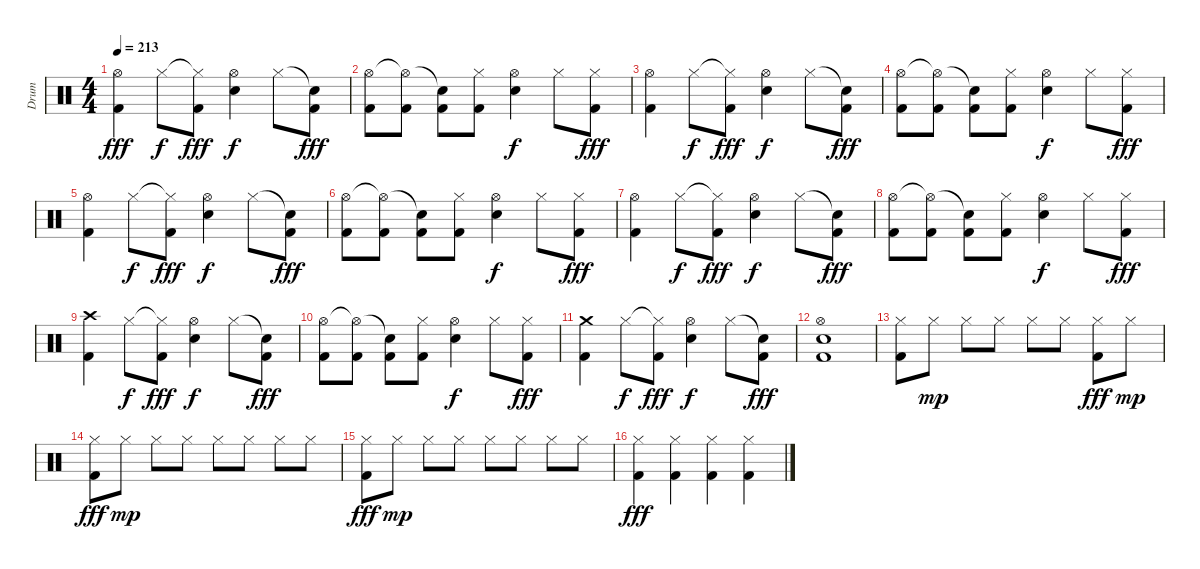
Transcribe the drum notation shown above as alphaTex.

\track ("Drum" "Drum") {instrument percussion}
\staff {score}
\articulation defaults
\ts (4 4)
\tempo 213
\clef neutral
\ks c
("Hi-Hat (open)" "Kick (hit) 2").4{dy fff} "Hi-Hat (closed)".8{dy f} ("Hi-Hat (closed)"{t} "Kick (hit) 2").8{dy fff} ("Hi-Hat (open)" "Snare (hit) 2").4{dy f} "Hi-Hat (closed)".8 ("Snare (hit)"{t} "Kick (hit) 2").8{dy fff} |
("Hi-Hat (open)" "Kick (hit) 2").8 ("Hi-Hat (open)"{t} "Kick (hit) 2").8 ("Snare (hit)"{t} "Kick (hit) 2").8 ("Hi-Hat (closed)" "Kick (hit) 2").8 ("Hi-Hat (open)" "Snare (hit) 2").4{dy f} "Hi-Hat (closed)".8 ("Hi-Hat (closed)" "Kick (hit) 2").8{dy fff} |
("Hi-Hat (open)" "Kick (hit) 2").4 "Hi-Hat (closed)".8{dy f} ("Hi-Hat (closed)"{t} "Kick (hit) 2").8{dy fff} ("Hi-Hat (open)" "Snare (hit) 2").4{dy f} "Hi-Hat (closed)".8 ("Snare (hit)"{t} "Kick (hit) 2").8{dy fff} |
("Hi-Hat (open)" "Kick (hit) 2").8 ("Hi-Hat (open)"{t} "Kick (hit) 2").8 ("Snare (hit)"{t} "Kick (hit) 2").8 ("Hi-Hat (closed)" "Kick (hit) 2").8 ("Hi-Hat (open)" "Snare (hit) 2").4{dy f} "Hi-Hat (closed)".8 ("Hi-Hat (closed)" "Kick (hit) 2").8{dy fff} |
("Hi-Hat (open)" "Kick (hit) 2").4 "Hi-Hat (closed)".8{dy f} ("Hi-Hat (closed)"{t} "Kick (hit) 2").8{dy fff} ("Hi-Hat (open)" "Snare (hit) 2").4{dy f} "Hi-Hat (closed)".8 ("Snare (hit)"{t} "Kick (hit) 2").8{dy fff} |
("Hi-Hat (open)" "Kick (hit) 2").8 ("Hi-Hat (open)"{t} "Kick (hit) 2").8 ("Snare (hit)"{t} "Kick (hit) 2").8 ("Hi-Hat (closed)" "Kick (hit) 2").8 ("Hi-Hat (open)" "Snare (hit) 2").4{dy f} "Hi-Hat (closed)".8 ("Hi-Hat (closed)" "Kick (hit) 2").8{dy fff} |
("Hi-Hat (open)" "Kick (hit) 2").4 "Hi-Hat (closed)".8{dy f} ("Hi-Hat (closed)"{t} "Kick (hit) 2").8{dy fff} ("Hi-Hat (open)" "Snare (hit) 2").4{dy f} "Hi-Hat (closed)".8 ("Snare (hit)"{t} "Kick (hit) 2").8{dy fff} |
("Hi-Hat (open)" "Kick (hit) 2").8 ("Hi-Hat (open)"{t} "Kick (hit) 2").8 ("Snare (hit)"{t} "Kick (hit) 2").8 ("Hi-Hat (closed)" "Kick (hit) 2").8 ("Hi-Hat (open)" "Snare (hit) 2").4{dy f} "Hi-Hat (closed)".8 ("Hi-Hat (closed)" "Kick (hit) 2").8{dy fff} |
("Crash high (hit)" "Kick (hit) 2").4 "Hi-Hat (closed)".8{dy f} ("Hi-Hat (closed)"{t} "Kick (hit) 2").8{dy fff} ("Hi-Hat (open)" "Snare (hit) 2").4{dy f} "Hi-Hat (closed)".8 ("Snare (hit)"{t} "Kick (hit) 2").8{dy fff} |
("Hi-Hat (open)" "Kick (hit) 2").8 ("Hi-Hat (open)"{t} "Kick (hit) 2").8 ("Snare (hit)"{t} "Kick (hit) 2").8 ("Hi-Hat (closed)" "Kick (hit) 2").8 ("Hi-Hat (open)" "Snare (hit) 2").4{dy f} "Hi-Hat (closed)".8 ("Hi-Hat (closed)" "Kick (hit) 2").8{dy fff} |
("Crash medium (hit)" "Kick (hit) 2").4 "Hi-Hat (closed)".8{dy f} ("Hi-Hat (closed)"{t} "Kick (hit) 2").8{dy fff} ("Hi-Hat (open)" "Snare (hit) 2").4{dy f} "Hi-Hat (closed)".8 ("Snare (hit)"{t} "Kick (hit) 2").8{dy fff} |
("Hi-Hat (open)" "Snare (hit) 2" "Kick (hit) 2").1 |
("Hi-Hat (closed)" "Kick (hit) 2").8 "Hi-Hat (closed)".8{dy mp} "Hi-Hat (closed)".8 "Hi-Hat (closed)".8 "Hi-Hat (closed)".8 "Hi-Hat (closed)".8 ("Hi-Hat (closed)" "Kick (hit) 2").8{dy fff} "Hi-Hat (closed)".8{dy mp} |
("Hi-Hat (closed)" "Kick (hit) 2").8{dy fff} "Hi-Hat (closed)".8{dy mp} "Hi-Hat (closed)".8 "Hi-Hat (closed)".8 "Hi-Hat (closed)".8 "Hi-Hat (closed)".8 "Hi-Hat (closed)".8 "Hi-Hat (closed)".8 |
("Hi-Hat (closed)" "Kick (hit) 2").8{dy fff} "Hi-Hat (closed)".8{dy mp} "Hi-Hat (closed)".8 "Hi-Hat (closed)".8 "Hi-Hat (closed)".8 "Hi-Hat (closed)".8 "Hi-Hat (closed)".8 "Hi-Hat (closed)".8 |
("Hi-Hat (closed)" "Kick (hit) 2").4{dy fff} ("Hi-Hat (closed)" "Kick (hit) 2").4 ("Hi-Hat (closed)" "Kick (hit) 2").4 ("Hi-Hat (closed)" "Kick (hit) 2").4
